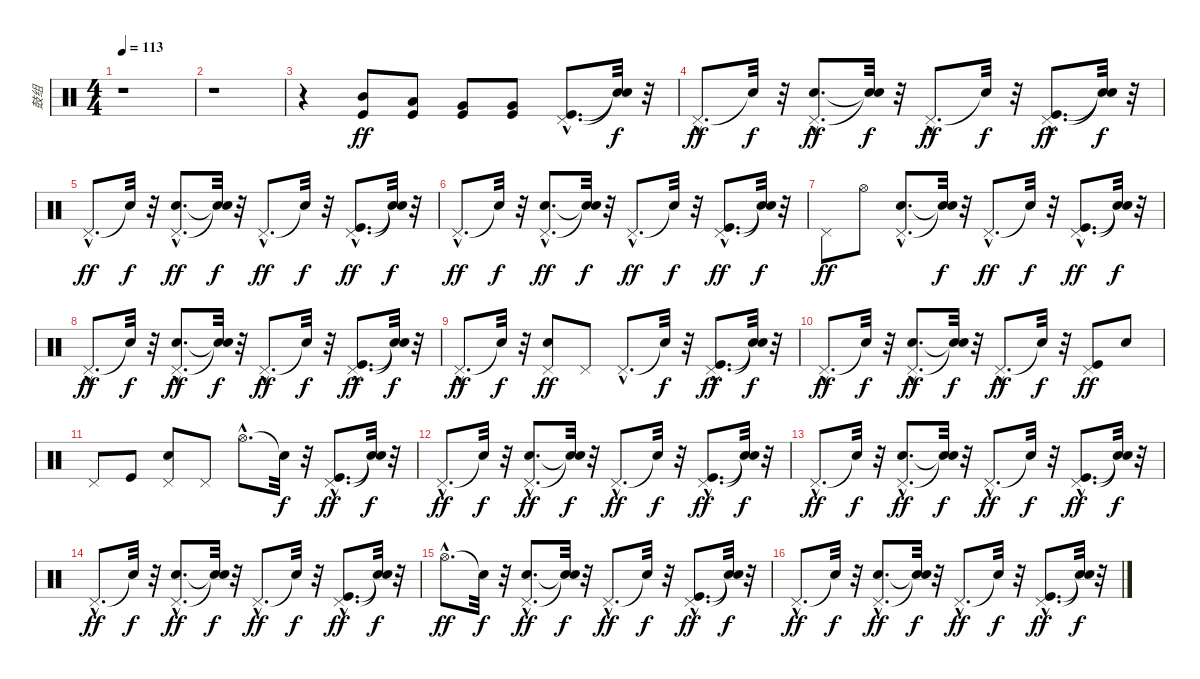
\track ("鼓组" "鼓组") {instrument percussion}
\staff {score}
\articulation defaults
\ts (4 4)
\tempo 113
\clef neutral
\ks c
r.1{dy ff} |
r.1 |
r.4 ("Kick (hit)" "Mid Tom (hit)").8{volume 14} ("Kick (hit)" "Low Tom (hit)").8 ("Kick (hit)" "Very Low Tom (hit)").8 ("Kick (hit)" "Very Low Tom (hit)").8 ("Kick (hit)"{hac} "Pedal Hi-Hat (hit)"{hac}).8{d} ("Snare (hit)"{t} "Snare (hit)"{t}).32{dy f} r.32 |
"Pedal Hi-Hat (hit)"{hac}.8{d dy ff} "Snare (hit)"{t}.32{dy f} r.32 ("Snare (hit) 2"{hac} "Pedal Hi-Hat (hit)"{hac}).8{d dy ff} ("Snare (hit)"{t} "Snare (hit)"{t}).32{dy f} r.32 "Pedal Hi-Hat (hit)"{hac}.8{d dy ff} "Snare (hit)"{t}.32{dy f} r.32 ("Kick (hit)"{hac} "Pedal Hi-Hat (hit)"{hac}).8{d dy ff} ("Snare (hit)"{t} "Snare (hit)"{t}).32{dy f} r.32 |
"Pedal Hi-Hat (hit)"{hac}.8{d dy ff} "Snare (hit)"{t}.32{dy f} r.32 ("Snare (hit) 2"{hac} "Pedal Hi-Hat (hit)"{hac}).8{d dy ff} ("Snare (hit)"{t} "Snare (hit)"{t}).32{dy f} r.32 "Pedal Hi-Hat (hit)"{hac}.8{d dy ff} "Snare (hit)"{t}.32{dy f} r.32 ("Kick (hit)"{hac} "Pedal Hi-Hat (hit)"{hac}).8{d dy ff} ("Snare (hit)"{t} "Snare (hit)"{t}).32{dy f} r.32 |
"Pedal Hi-Hat (hit)"{hac}.8{d dy ff} "Snare (hit)"{t}.32{dy f} r.32 ("Snare (hit) 2"{hac} "Pedal Hi-Hat (hit)"{hac}).8{d dy ff} ("Snare (hit)"{t} "Snare (hit)"{t}).32{dy f} r.32 "Pedal Hi-Hat (hit)"{hac}.8{d dy ff} "Snare (hit)"{t}.32{dy f} r.32 ("Kick (hit)"{hac} "Pedal Hi-Hat (hit)"{hac}).8{d dy ff} ("Snare (hit)"{t} "Snare (hit)"{t}).32{dy f} r.32 |
"Pedal Hi-Hat (hit)".8{dy ff} "Hi-Hat (open)".8 ("Snare (hit) 2"{hac} "Pedal Hi-Hat (hit)"{hac}).8{d} ("Snare (hit)"{t} "Snare (hit)"{t}).32{dy f} r.32 "Pedal Hi-Hat (hit)"{hac}.8{d dy ff} "Snare (hit)"{t}.32{dy f} r.32 ("Kick (hit)"{hac} "Pedal Hi-Hat (hit)"{hac}).8{d dy ff} ("Snare (hit)"{t} "Snare (hit)"{t}).32{dy f} r.32 |
"Pedal Hi-Hat (hit)"{hac}.8{d dy ff} "Snare (hit)"{t}.32{dy f} r.32 ("Snare (hit) 2"{hac} "Pedal Hi-Hat (hit)"{hac}).8{d dy ff} ("Snare (hit)"{t} "Snare (hit)"{t}).32{dy f} r.32 "Pedal Hi-Hat (hit)"{hac}.8{d dy ff} "Snare (hit)"{t}.32{dy f} r.32 ("Kick (hit)"{hac} "Pedal Hi-Hat (hit)"{hac}).8{d dy ff} ("Snare (hit)"{t} "Snare (hit)"{t}).32{dy f} r.32 |
"Pedal Hi-Hat (hit)"{hac}.8{d dy ff} "Snare (hit)"{t}.32{dy f} r.32 ("Snare (hit) 2" "Pedal Hi-Hat (hit)").8{dy ff} "Pedal Hi-Hat (hit)".8 "Pedal Hi-Hat (hit)"{hac}.8{d} "Snare (hit)"{t}.32{dy f} r.32 ("Kick (hit)"{hac} "Pedal Hi-Hat (hit)"{hac}).8{d dy ff} ("Snare (hit)"{t} "Snare (hit)"{t}).32{dy f} r.32 |
"Pedal Hi-Hat (hit)"{hac}.8{d dy ff} "Snare (hit)"{t}.32{dy f} r.32 ("Snare (hit) 2"{hac} "Pedal Hi-Hat (hit)"{hac}).8{d dy ff} ("Snare (hit)"{t} "Snare (hit)"{t}).32{dy f} r.32 "Pedal Hi-Hat (hit)"{hac}.8{d dy ff} "Snare (hit)"{t}.32{dy f} r.32 ("Kick (hit)" "Pedal Hi-Hat (hit)").8{dy ff} "Snare (hit) 2".8 |
"Pedal Hi-Hat (hit)".8 "Kick (hit)".8 ("Snare (hit) 2" "Pedal Hi-Hat (hit)").8 "Pedal Hi-Hat (hit)".8 "Hi-Hat (open)"{hac}.8{d} "Snare (hit)"{t}.32{dy f} r.32 ("Kick (hit)"{hac} "Pedal Hi-Hat (hit)"{hac}).8{d dy ff} ("Snare (hit)"{t} "Snare (hit)"{t}).32{dy f} r.32 |
"Pedal Hi-Hat (hit)"{hac}.8{d dy ff} "Snare (hit)"{t}.32{dy f} r.32 ("Snare (hit) 2"{hac} "Pedal Hi-Hat (hit)"{hac}).8{d dy ff} ("Snare (hit)"{t} "Snare (hit)"{t}).32{dy f} r.32 "Pedal Hi-Hat (hit)"{hac}.8{d dy ff} "Snare (hit)"{t}.32{dy f} r.32 ("Kick (hit)"{hac} "Pedal Hi-Hat (hit)"{hac}).8{d dy ff} ("Snare (hit)"{t} "Snare (hit)"{t}).32{dy f} r.32 |
"Pedal Hi-Hat (hit)"{hac}.8{d dy ff} "Snare (hit)"{t}.32{dy f} r.32 ("Snare (hit) 2"{hac} "Pedal Hi-Hat (hit)"{hac}).8{d dy ff} ("Snare (hit)"{t} "Snare (hit)"{t}).32{dy f} r.32 "Pedal Hi-Hat (hit)"{hac}.8{d dy ff} "Snare (hit)"{t}.32{dy f} r.32 ("Kick (hit)"{hac} "Pedal Hi-Hat (hit)"{hac}).8{d dy ff} ("Snare (hit)"{t} "Snare (hit)"{t}).32{dy f} r.32 |
"Pedal Hi-Hat (hit)"{hac}.8{d dy ff} "Snare (hit)"{t}.32{dy f} r.32 ("Snare (hit) 2"{hac} "Pedal Hi-Hat (hit)"{hac}).8{d dy ff} ("Snare (hit)"{t} "Snare (hit)"{t}).32{dy f} r.32 "Pedal Hi-Hat (hit)"{hac}.8{d dy ff} "Snare (hit)"{t}.32{dy f} r.32 ("Kick (hit)"{hac} "Pedal Hi-Hat (hit)"{hac}).8{d dy ff} ("Snare (hit)"{t} "Snare (hit)"{t}).32{dy f} r.32 |
"Hi-Hat (open)"{hac}.8{d dy ff} "Snare (hit)"{t}.32{dy f} r.32 ("Snare (hit) 2"{hac} "Pedal Hi-Hat (hit)"{hac}).8{d dy ff} ("Snare (hit)"{t} "Snare (hit)"{t}).32{dy f} r.32 "Pedal Hi-Hat (hit)"{hac}.8{d dy ff} "Snare (hit)"{t}.32{dy f} r.32 ("Kick (hit)"{hac} "Pedal Hi-Hat (hit)"{hac}).8{d dy ff} ("Snare (hit)"{t} "Snare (hit)"{t}).32{dy f} r.32 |
"Pedal Hi-Hat (hit)"{hac}.8{d dy ff} "Snare (hit)"{t}.32{dy f} r.32 ("Snare (hit) 2"{hac} "Pedal Hi-Hat (hit)"{hac}).8{d dy ff} ("Snare (hit)"{t} "Snare (hit)"{t}).32{dy f} r.32 "Pedal Hi-Hat (hit)"{hac}.8{d dy ff} "Snare (hit)"{t}.32{dy f} r.32 ("Kick (hit)"{hac} "Pedal Hi-Hat (hit)"{hac}).8{d dy ff} ("Snare (hit)"{t} "Snare (hit)"{t}).32{dy f} r.32
